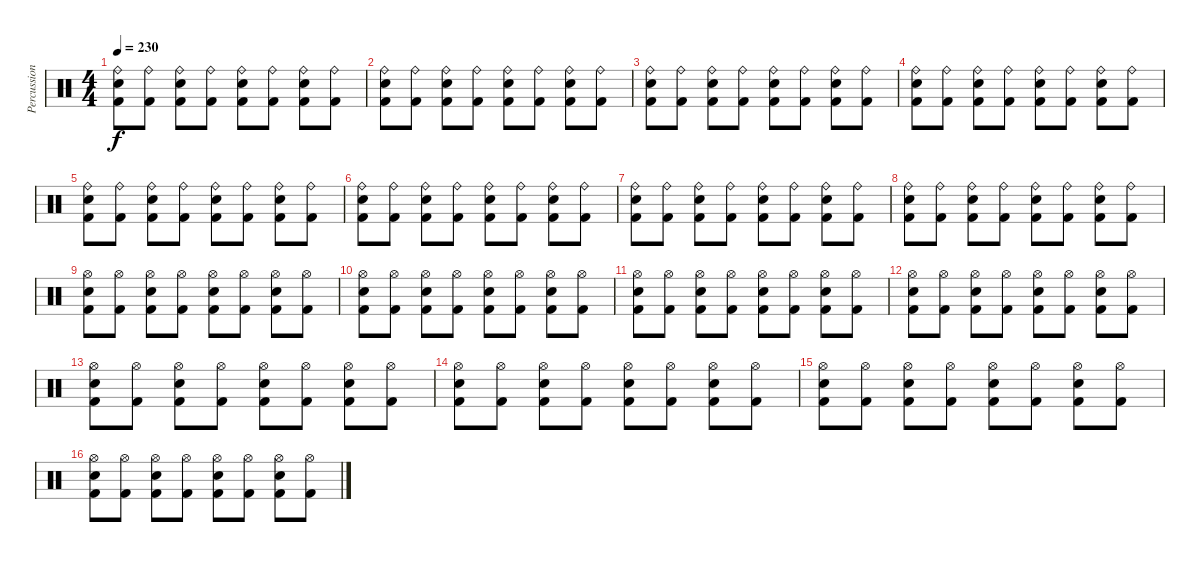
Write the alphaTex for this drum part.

\track ("Percussions" "Percussion") {instrument percussion}
\staff {score}
\articulation defaults
\ts (4 4)
\tempo 230
\clef neutral
\ks c
("Kick (hit) 2" "Snare (hit) 2" "Ride (bell)").8{dy f} ("Kick (hit) 2" "Ride (bell)").8 ("Kick (hit) 2" "Snare (hit) 2" "Ride (bell)").8 ("Kick (hit) 2" "Ride (bell)").8 ("Kick (hit) 2" "Snare (hit) 2" "Ride (bell)").8 ("Kick (hit) 2" "Ride (bell)").8 ("Kick (hit) 2" "Snare (hit) 2" "Ride (bell)").8 ("Kick (hit) 2" "Ride (bell)").8 |
("Kick (hit) 2" "Snare (hit) 2" "Ride (bell)").8 ("Kick (hit) 2" "Ride (bell)").8 ("Kick (hit) 2" "Snare (hit) 2" "Ride (bell)").8 ("Kick (hit) 2" "Ride (bell)").8 ("Kick (hit) 2" "Snare (hit) 2" "Ride (bell)").8 ("Kick (hit) 2" "Ride (bell)").8 ("Kick (hit) 2" "Snare (hit) 2" "Ride (bell)").8 ("Kick (hit) 2" "Ride (bell)").8 |
("Kick (hit) 2" "Snare (hit) 2" "Ride (bell)").8 ("Kick (hit) 2" "Ride (bell)").8 ("Kick (hit) 2" "Snare (hit) 2" "Ride (bell)").8 ("Kick (hit) 2" "Ride (bell)").8 ("Kick (hit) 2" "Snare (hit) 2" "Ride (bell)").8 ("Kick (hit) 2" "Ride (bell)").8 ("Kick (hit) 2" "Snare (hit) 2" "Ride (bell)").8 ("Kick (hit) 2" "Ride (bell)").8 |
("Kick (hit) 2" "Snare (hit) 2" "Ride (bell)").8 ("Kick (hit) 2" "Ride (bell)").8 ("Kick (hit) 2" "Snare (hit) 2" "Ride (bell)").8 ("Kick (hit) 2" "Ride (bell)").8 ("Kick (hit) 2" "Snare (hit) 2" "Ride (bell)").8 ("Kick (hit) 2" "Ride (bell)").8 ("Kick (hit) 2" "Snare (hit) 2" "Ride (bell)").8 ("Kick (hit) 2" "Ride (bell)").8 |
("Kick (hit) 2" "Snare (hit) 2" "Ride (bell)").8 ("Kick (hit) 2" "Ride (bell)").8 ("Kick (hit) 2" "Snare (hit) 2" "Ride (bell)").8 ("Kick (hit) 2" "Ride (bell)").8 ("Kick (hit) 2" "Snare (hit) 2" "Ride (bell)").8 ("Kick (hit) 2" "Ride (bell)").8 ("Kick (hit) 2" "Snare (hit) 2" "Ride (bell)").8 ("Kick (hit) 2" "Ride (bell)").8 |
("Kick (hit) 2" "Snare (hit) 2" "Ride (bell)").8 ("Kick (hit) 2" "Ride (bell)").8 ("Kick (hit) 2" "Snare (hit) 2" "Ride (bell)").8 ("Kick (hit) 2" "Ride (bell)").8 ("Kick (hit) 2" "Snare (hit) 2" "Ride (bell)").8 ("Kick (hit) 2" "Ride (bell)").8 ("Kick (hit) 2" "Snare (hit) 2" "Ride (bell)").8 ("Kick (hit) 2" "Ride (bell)").8 |
("Kick (hit) 2" "Snare (hit) 2" "Ride (bell)").8 ("Kick (hit) 2" "Ride (bell)").8 ("Kick (hit) 2" "Snare (hit) 2" "Ride (bell)").8 ("Kick (hit) 2" "Ride (bell)").8 ("Kick (hit) 2" "Snare (hit) 2" "Ride (bell)").8 ("Kick (hit) 2" "Ride (bell)").8 ("Kick (hit) 2" "Snare (hit) 2" "Ride (bell)").8 ("Kick (hit) 2" "Ride (bell)").8 |
("Kick (hit) 2" "Snare (hit) 2" "Ride (bell)").8 ("Kick (hit) 2" "Ride (bell)").8 ("Kick (hit) 2" "Snare (hit) 2" "Ride (bell)").8 ("Kick (hit) 2" "Ride (bell)").8 ("Kick (hit) 2" "Snare (hit) 2" "Ride (bell)").8 ("Kick (hit) 2" "Ride (bell)").8 ("Kick (hit) 2" "Snare (hit) 2" "Ride (bell)").8 ("Kick (hit) 2" "Ride (bell)").8 |
("Kick (hit) 2" "Snare (hit) 2" "Hi-Hat (open)").8 ("Kick (hit) 2" "Hi-Hat (open)").8 ("Kick (hit) 2" "Snare (hit) 2" "Hi-Hat (open)").8 ("Kick (hit) 2" "Hi-Hat (open)").8 ("Kick (hit) 2" "Snare (hit) 2" "Hi-Hat (open)").8 ("Kick (hit) 2" "Hi-Hat (open)").8 ("Kick (hit) 2" "Snare (hit) 2" "Hi-Hat (open)").8 ("Kick (hit) 2" "Hi-Hat (open)").8 |
("Kick (hit) 2" "Snare (hit) 2" "Hi-Hat (open)").8 ("Kick (hit) 2" "Hi-Hat (open)").8 ("Kick (hit) 2" "Snare (hit) 2" "Hi-Hat (open)").8 ("Kick (hit) 2" "Hi-Hat (open)").8 ("Kick (hit) 2" "Snare (hit) 2" "Hi-Hat (open)").8 ("Kick (hit) 2" "Hi-Hat (open)").8 ("Kick (hit) 2" "Snare (hit) 2" "Hi-Hat (open)").8 ("Kick (hit) 2" "Hi-Hat (open)").8 |
("Kick (hit) 2" "Snare (hit) 2" "Hi-Hat (open)").8 ("Kick (hit) 2" "Hi-Hat (open)").8 ("Kick (hit) 2" "Snare (hit) 2" "Hi-Hat (open)").8 ("Kick (hit) 2" "Hi-Hat (open)").8 ("Kick (hit) 2" "Snare (hit) 2" "Hi-Hat (open)").8 ("Kick (hit) 2" "Hi-Hat (open)").8 ("Kick (hit) 2" "Snare (hit) 2" "Hi-Hat (open)").8 ("Kick (hit) 2" "Hi-Hat (open)").8 |
("Kick (hit) 2" "Snare (hit) 2" "Hi-Hat (open)").8 ("Kick (hit) 2" "Hi-Hat (open)").8 ("Kick (hit) 2" "Snare (hit) 2" "Hi-Hat (open)").8 ("Kick (hit) 2" "Hi-Hat (open)").8 ("Kick (hit) 2" "Snare (hit) 2" "Hi-Hat (open)").8 ("Kick (hit) 2" "Hi-Hat (open)").8 ("Kick (hit) 2" "Snare (hit) 2" "Hi-Hat (open)").8 ("Kick (hit) 2" "Hi-Hat (open)").8 |
("Kick (hit) 2" "Snare (hit) 2" "Hi-Hat (open)").8 ("Kick (hit) 2" "Hi-Hat (open)").8 ("Kick (hit) 2" "Snare (hit) 2" "Hi-Hat (open)").8 ("Kick (hit) 2" "Hi-Hat (open)").8 ("Kick (hit) 2" "Snare (hit) 2" "Hi-Hat (open)").8 ("Kick (hit) 2" "Hi-Hat (open)").8 ("Kick (hit) 2" "Snare (hit) 2" "Hi-Hat (open)").8 ("Kick (hit) 2" "Hi-Hat (open)").8 |
("Kick (hit) 2" "Snare (hit) 2" "Hi-Hat (open)").8 ("Kick (hit) 2" "Hi-Hat (open)").8 ("Kick (hit) 2" "Snare (hit) 2" "Hi-Hat (open)").8 ("Kick (hit) 2" "Hi-Hat (open)").8 ("Kick (hit) 2" "Snare (hit) 2" "Hi-Hat (open)").8 ("Kick (hit) 2" "Hi-Hat (open)").8 ("Kick (hit) 2" "Snare (hit) 2" "Hi-Hat (open)").8 ("Kick (hit) 2" "Hi-Hat (open)").8 |
("Kick (hit) 2" "Snare (hit) 2" "Hi-Hat (open)").8 ("Kick (hit) 2" "Hi-Hat (open)").8 ("Kick (hit) 2" "Snare (hit) 2" "Hi-Hat (open)").8 ("Kick (hit) 2" "Hi-Hat (open)").8 ("Kick (hit) 2" "Snare (hit) 2" "Hi-Hat (open)").8 ("Kick (hit) 2" "Hi-Hat (open)").8 ("Kick (hit) 2" "Snare (hit) 2" "Hi-Hat (open)").8 ("Kick (hit) 2" "Hi-Hat (open)").8 |
("Kick (hit) 2" "Snare (hit) 2" "Hi-Hat (open)").8 ("Kick (hit) 2" "Hi-Hat (open)").8 ("Kick (hit) 2" "Snare (hit) 2" "Hi-Hat (open)").8 ("Kick (hit) 2" "Hi-Hat (open)").8 ("Kick (hit) 2" "Snare (hit) 2" "Hi-Hat (open)").8 ("Kick (hit) 2" "Hi-Hat (open)").8 ("Kick (hit) 2" "Snare (hit) 2" "Hi-Hat (open)").8 ("Kick (hit) 2" "Hi-Hat (open)").8
